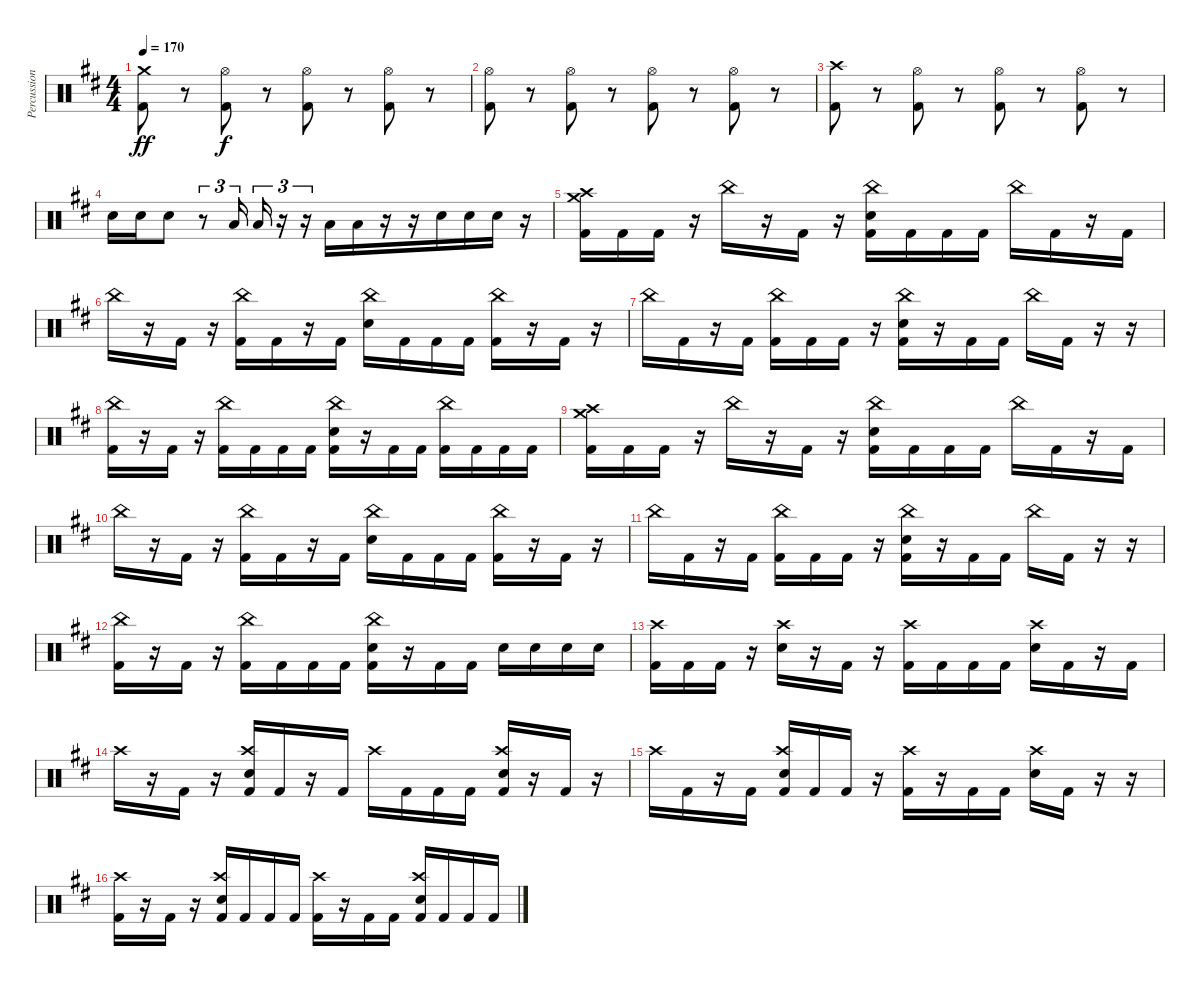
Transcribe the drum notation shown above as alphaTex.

\track ("Percussion" "Percussion") {instrument percussion}
\staff {score}
\articulation defaults
\ts (4 4)
\tempo 170
\clef neutral
\ks bminor
("Crash medium (hit)" "Kick (hit) 2").8{dy ff} r.8 ("Hi-Hat (open)" "Kick (hit) 2").8{dy f} r.8 ("Hi-Hat (open)" "Kick (hit) 2").8 r.8 ("Hi-Hat (open)" "Kick (hit) 2").8 r.8 |
("Hi-Hat (open)" "Kick (hit) 2").8 r.8 ("Hi-Hat (open)" "Kick (hit) 2").8 r.8 ("Hi-Hat (open)" "Kick (hit) 2").8 r.8 ("Hi-Hat (open)" "Kick (hit) 2").8 r.8 |
("Crash high (hit)" "Kick (hit) 2").8 r.8 ("Hi-Hat (open)" "Kick (hit) 2").8 r.8 ("Hi-Hat (open)" "Kick (hit) 2").8 r.8 ("Hi-Hat (open)" "Kick (hit) 2").8 r.8 |
"Electric Snare (hit)".16 "Electric Snare (hit)".16 "Electric Snare (hit)".8 r.8{tu (3 2)} "Low Tom (hit)".16{tu (3 2)} "Low Tom (hit)".16{tu (3 2)} r.16{tu (3 2) beam merge} r.16{tu (3 2) beam merge} "Low Tom (hit)".16{beam merge} "Low Tom (hit)".16{beam merge} r.16 r.16 "Electric Snare (hit)".16{beam merge} "Electric Snare (hit)".16{beam merge} "Electric Snare (hit)".16 r.16 |
("Crash high (hit)" "Crash medium (hit)" "Kick (hit) 2").16 "Kick (hit) 2".16 "Kick (hit) 2".16 r.16 "China (hit)".16 r.16 "Kick (hit) 2".16 r.16 ("China (hit)" "Electric Snare (hit)" "Kick (hit) 2").16 "Kick (hit) 2".16 "Kick (hit) 2".16 "Kick (hit) 2".16 "China (hit)".16 "Kick (hit) 2".16 r.16 "Kick (hit) 2".16 |
"China (hit)".16 r.16 "Kick (hit) 2".16 r.16 ("China (hit)" "Kick (hit) 2").16 "Kick (hit) 2".16 r.16 "Kick (hit) 2".16 ("China (hit)" "Electric Snare (hit)").16 "Kick (hit) 2".16 "Kick (hit) 2".16 "Kick (hit) 2".16 ("China (hit)" "Kick (hit) 2").16 r.16 "Kick (hit) 2".16 r.16 |
"China (hit)".16 "Kick (hit) 2".16 r.16 "Kick (hit) 2".16 ("China (hit)" "Kick (hit) 2").16 "Kick (hit) 2".16 "Kick (hit) 2".16 r.16 ("China (hit)" "Electric Snare (hit)" "Kick (hit) 2").16 r.16 "Kick (hit) 2".16 "Kick (hit) 2".16 "China (hit)".16 "Kick (hit) 2".16 r.16 r.16 |
("China (hit)" "Kick (hit) 2").16 r.16 "Kick (hit) 2".16 r.16 ("China (hit)" "Kick (hit) 2").16 "Kick (hit) 2".16 "Kick (hit) 2".16 "Kick (hit) 2".16 ("China (hit)" "Electric Snare (hit)" "Kick (hit) 2").16 r.16 "Kick (hit) 2".16 "Kick (hit) 2".16 ("China (hit)" "Kick (hit) 2").16 "Kick (hit) 2".16 "Kick (hit) 2".16 "Kick (hit) 2".16 |
("Crash high (hit)" "Crash medium (hit)" "Kick (hit) 2").16 "Kick (hit) 2".16 "Kick (hit) 2".16 r.16 "China (hit)".16 r.16 "Kick (hit) 2".16 r.16 ("China (hit)" "Electric Snare (hit)" "Kick (hit) 2").16 "Kick (hit) 2".16 "Kick (hit) 2".16 "Kick (hit) 2".16 "China (hit)".16 "Kick (hit) 2".16 r.16 "Kick (hit) 2".16 |
"China (hit)".16 r.16 "Kick (hit) 2".16 r.16 ("China (hit)" "Kick (hit) 2").16 "Kick (hit) 2".16 r.16 "Kick (hit) 2".16 ("China (hit)" "Electric Snare (hit)").16 "Kick (hit) 2".16 "Kick (hit) 2".16 "Kick (hit) 2".16 ("China (hit)" "Kick (hit) 2").16 r.16 "Kick (hit) 2".16 r.16 |
"China (hit)".16 "Kick (hit) 2".16 r.16 "Kick (hit) 2".16 ("China (hit)" "Kick (hit) 2").16 "Kick (hit) 2".16 "Kick (hit) 2".16 r.16 ("China (hit)" "Electric Snare (hit)" "Kick (hit) 2").16 r.16 "Kick (hit) 2".16 "Kick (hit) 2".16 "China (hit)".16 "Kick (hit) 2".16 r.16 r.16 |
("China (hit)" "Kick (hit) 2").16 r.16 "Kick (hit) 2".16 r.16 ("China (hit)" "Kick (hit) 2").16 "Kick (hit) 2".16 "Kick (hit) 2".16 "Kick (hit) 2".16 ("China (hit)" "Electric Snare (hit)" "Kick (hit) 2").16 r.16 "Kick (hit) 2".16 "Kick (hit) 2".16 "Electric Snare (hit)".16 "Electric Snare (hit)".16 "Electric Snare (hit)".16 "Electric Snare (hit)".16 |
("Crash high (hit)" "Kick (hit) 2").16 "Kick (hit) 2".16 "Kick (hit) 2".16 r.16 ("Crash high (hit)" "Electric Snare (hit)").16 r.16 "Kick (hit) 2".16 r.16 ("Crash high (hit)" "Kick (hit) 2").16 "Kick (hit) 2".16 "Kick (hit) 2".16 "Kick (hit) 2".16 ("Crash high (hit)" "Electric Snare (hit)").16 "Kick (hit) 2".16 r.16 "Kick (hit) 2".16 |
"Crash high (hit)".16 r.16 "Kick (hit) 2".16 r.16 ("Crash high (hit)" "Electric Snare (hit)" "Kick (hit) 2").16 "Kick (hit) 2".16 r.16 "Kick (hit) 2".16 "Crash high (hit)".16 "Kick (hit) 2".16 "Kick (hit) 2".16 "Kick (hit) 2".16 ("Crash high (hit)" "Electric Snare (hit)" "Kick (hit) 2").16 r.16 "Kick (hit) 2".16 r.16 |
"Crash high (hit)".16 "Kick (hit) 2".16 r.16 "Kick (hit) 2".16 ("Crash high (hit)" "Electric Snare (hit)" "Kick (hit) 2").16 "Kick (hit) 2".16 "Kick (hit) 2".16 r.16 ("Crash high (hit)" "Kick (hit) 2").16 r.16 "Kick (hit) 2".16 "Kick (hit) 2".16 ("Crash high (hit)" "Electric Snare (hit)").16 "Kick (hit) 2".16 r.16 r.16 |
("Crash high (hit)" "Kick (hit) 2").16 r.16 "Kick (hit) 2".16 r.16 ("Crash high (hit)" "Electric Snare (hit)" "Kick (hit) 2").16 "Kick (hit) 2".16 "Kick (hit) 2".16 "Kick (hit) 2".16 ("Crash high (hit)" "Kick (hit) 2").16 r.16 "Kick (hit) 2".16 "Kick (hit) 2".16 ("Crash high (hit)" "Electric Snare (hit)" "Kick (hit) 2").16 "Kick (hit) 2".16 "Kick (hit) 2".16 "Kick (hit) 2".16
